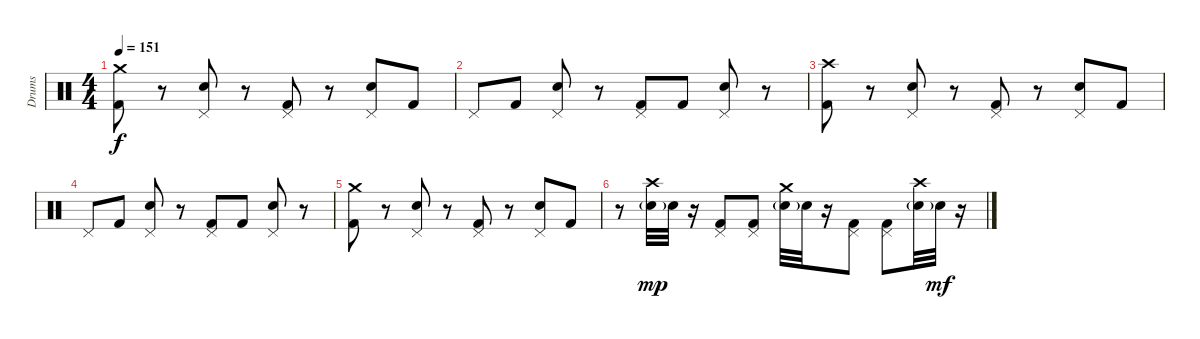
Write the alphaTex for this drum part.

\track ("Drums" "Drums") {instrument percussion}
\staff {score}
\articulation defaults
\ts (4 4)
\tempo 151
\clef neutral
\ks c
("Kick (hit) 2" "Crash medium (hit)").8{dy f volume 7} r.8 ("Pedal Hi-Hat (hit)" "Electric Snare (hit)").8 r.8 ("Pedal Hi-Hat (hit)" "Kick (hit) 2").8 r.8 ("Pedal Hi-Hat (hit)" "Electric Snare (hit)").8 "Kick (hit) 2".8 |
"Pedal Hi-Hat (hit)".8 "Kick (hit) 2".8 ("Pedal Hi-Hat (hit)" "Electric Snare (hit)").8 r.8 ("Pedal Hi-Hat (hit)" "Kick (hit) 2").8 "Kick (hit) 2".8 ("Pedal Hi-Hat (hit)" "Electric Snare (hit)").8 r.8 |
("Kick (hit) 2" "Crash high (hit)").8{volume 5} r.8 ("Pedal Hi-Hat (hit)" "Electric Snare (hit)").8 r.8 ("Pedal Hi-Hat (hit)" "Kick (hit) 2").8 r.8 ("Pedal Hi-Hat (hit)" "Electric Snare (hit)").8 "Kick (hit) 2".8 |
"Pedal Hi-Hat (hit)".8 "Kick (hit) 2".8 ("Pedal Hi-Hat (hit)" "Electric Snare (hit)").8 r.8 ("Pedal Hi-Hat (hit)" "Kick (hit) 2").8 "Kick (hit) 2".8 ("Pedal Hi-Hat (hit)" "Electric Snare (hit)").8 r.8 |
("Kick (hit) 2" "Crash medium (hit)").8{volume 1} r.8 ("Pedal Hi-Hat (hit)" "Electric Snare (hit)").8 r.8 ("Pedal Hi-Hat (hit)" "Kick (hit) 2").8 r.8 ("Pedal Hi-Hat (hit)" "Electric Snare (hit)").8 "Kick (hit) 2".8 |
r.8 ("Snare (hit) 2"{g} "Crash high (hit)").32{dy mp} "Snare (hit) 2".32 r.16 ("Kick (hit) 2" "Pedal Hi-Hat (hit)").8 ("Kick (hit) 2" "Pedal Hi-Hat (hit)").8 ("Snare (hit) 2"{g} "Crash medium (hit)").32 "Snare (hit) 2".32 r.16 ("Kick (hit) 2" "Pedal Hi-Hat (hit)").8 ("Kick (hit) 2" "Pedal Hi-Hat (hit)").8 ("Snare (hit) 2"{g} "Crash high (hit)").32 "Snare (hit) 2".32{dy mf} r.16
